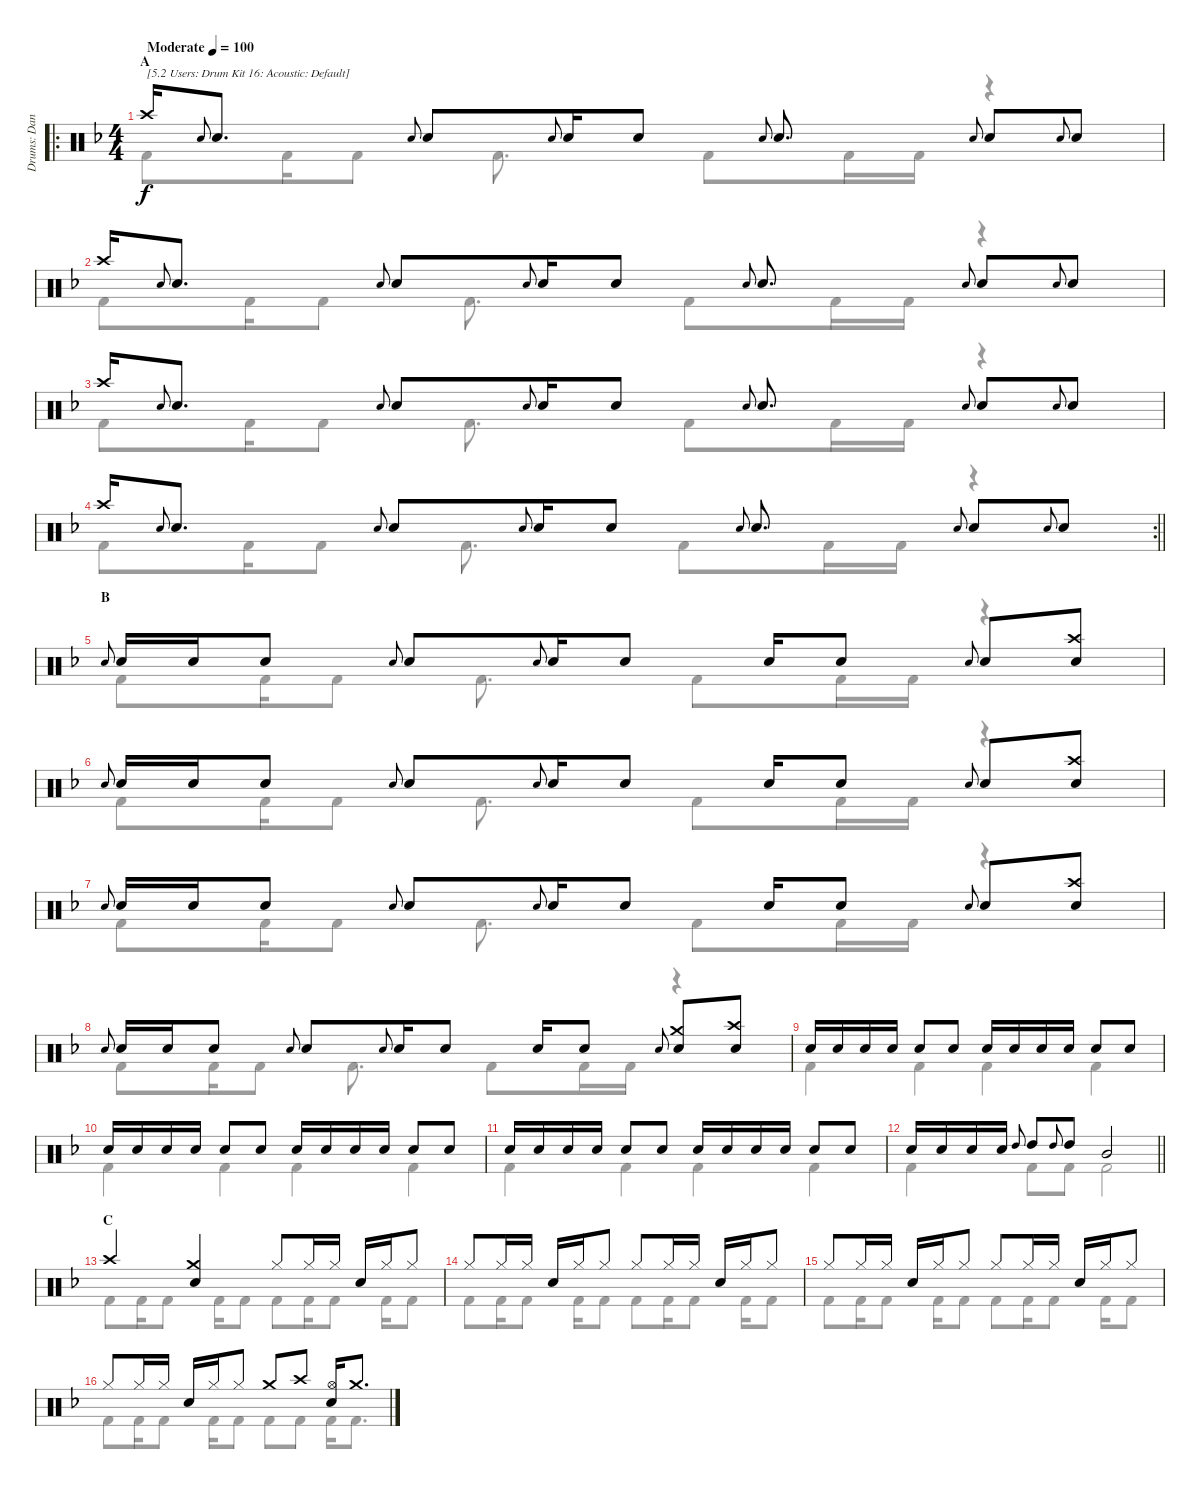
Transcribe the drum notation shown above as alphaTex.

\track ("Drums: Dana" "Drums: Dan") {instrument percussion}
\staff {score}
\articulation defaults
\voice
\ro
\ts (4 4)
\section ("" "A")
\tempo (100 "Moderate")
\clef neutral
\ks f "Crash high (hit)".16{txt "[5.2 Users: Drum Kit 16: Acoustic: Default]" dy f} "Electric Snare (hit)".8{gr onbeat} "Snare (hit) 2".8{d} "Electric Snare (hit)".8{gr onbeat} "Snare (hit) 2".8 "Electric Snare (hit)".8{gr onbeat} "Snare (hit) 2".16 "Snare (hit) 2".8 "Electric Snare (hit)".8{gr onbeat} "Snare (hit) 2".8{d} "Electric Snare (hit)".8{gr onbeat} "Snare (hit) 2".8 "Electric Snare (hit)".8{gr onbeat} "Snare (hit) 2".8
|
"Crash high (hit)".16 "Electric Snare (hit)".8{gr onbeat} "Snare (hit) 2".8{d} "Electric Snare (hit)".8{gr onbeat} "Snare (hit) 2".8 "Electric Snare (hit)".8{gr onbeat} "Snare (hit) 2".16 "Snare (hit) 2".8 "Electric Snare (hit)".8{gr onbeat} "Snare (hit) 2".8{d} "Electric Snare (hit)".8{gr onbeat} "Snare (hit) 2".8 "Electric Snare (hit)".8{gr onbeat} "Snare (hit) 2".8 |
"Crash high (hit)".16 "Electric Snare (hit)".8{gr onbeat} "Snare (hit) 2".8{d} "Electric Snare (hit)".8{gr onbeat} "Snare (hit) 2".8 "Electric Snare (hit)".8{gr onbeat} "Snare (hit) 2".16 "Snare (hit) 2".8 "Electric Snare (hit)".8{gr onbeat} "Snare (hit) 2".8{d} "Electric Snare (hit)".8{gr onbeat} "Snare (hit) 2".8 "Electric Snare (hit)".8{gr onbeat} "Snare (hit) 2".8 |
\rc 2
\barLineRight lightlight "Crash high (hit)".16 "Electric Snare (hit)".8{gr onbeat} "Snare (hit) 2".8{d} "Electric Snare (hit)".8{gr onbeat} "Snare (hit) 2".8 "Electric Snare (hit)".8{gr onbeat} "Snare (hit) 2".16 "Snare (hit) 2".8 "Electric Snare (hit)".8{gr onbeat} "Snare (hit) 2".8{d} "Electric Snare (hit)".8{gr onbeat} "Snare (hit) 2".8 "Electric Snare (hit)".8{gr onbeat} "Snare (hit) 2".8
|
\section ("" "B")
"Electric Snare (hit)".8{gr onbeat} "Snare (hit) 2".16 "Snare (hit) 2".16 "Snare (hit) 2".8 "Electric Snare (hit)".8{gr onbeat} "Snare (hit) 2".8 "Electric Snare (hit)".8{gr onbeat} "Snare (hit) 2".16 "Snare (hit) 2".8 "Snare (hit) 2".16 "Snare (hit) 2".8 "Electric Snare (hit)".8{gr onbeat} "Snare (hit) 2".8 ("Crash high (hit)" "Snare (hit) 2").8 |
"Electric Snare (hit)".8{gr onbeat} "Snare (hit) 2".16 "Snare (hit) 2".16 "Snare (hit) 2".8 "Electric Snare (hit)".8{gr onbeat} "Snare (hit) 2".8 "Electric Snare (hit)".8{gr onbeat} "Snare (hit) 2".16 "Snare (hit) 2".8 "Snare (hit) 2".16 "Snare (hit) 2".8 "Electric Snare (hit)".8{gr onbeat} "Snare (hit) 2".8 ("Crash high (hit)" "Snare (hit) 2").8 |
"Electric Snare (hit)".8{gr onbeat} "Snare (hit) 2".16 "Snare (hit) 2".16 "Snare (hit) 2".8 "Electric Snare (hit)".8{gr onbeat} "Snare (hit) 2".8 "Electric Snare (hit)".8{gr onbeat} "Snare (hit) 2".16 "Snare (hit) 2".8 "Snare (hit) 2".16 "Snare (hit) 2".8 "Electric Snare (hit)".8{gr onbeat} "Snare (hit) 2".8 ("Crash high (hit)" "Snare (hit) 2").8 |
"Electric Snare (hit)".8{gr onbeat} "Snare (hit) 2".16 "Snare (hit) 2".16 "Snare (hit) 2".8 "Electric Snare (hit)".8{gr onbeat} "Snare (hit) 2".8 "Electric Snare (hit)".8{gr onbeat} "Snare (hit) 2".16 "Snare (hit) 2".8 "Snare (hit) 2".16 "Snare (hit) 2".8 "Electric Snare (hit)".8{gr onbeat} ("Crash medium (hit)" "Snare (hit) 2").8 ("Crash high (hit)" "Snare (hit) 2").8 |
"Snare (hit) 2".16 "Snare (hit) 2".16 "Snare (hit) 2".16 "Snare (hit) 2".16 "Snare (hit) 2".8 "Snare (hit) 2".8 "Snare (hit) 2".16 "Snare (hit) 2".16 "Snare (hit) 2".16 "Snare (hit) 2".16 "Snare (hit) 2".8 "Snare (hit) 2".8 |
"Snare (hit) 2".16 "Snare (hit) 2".16 "Snare (hit) 2".16 "Snare (hit) 2".16 "Snare (hit) 2".8 "Snare (hit) 2".8 "Snare (hit) 2".16 "Snare (hit) 2".16 "Snare (hit) 2".16 "Snare (hit) 2".16 "Snare (hit) 2".8 "Snare (hit) 2".8 |
"Snare (hit) 2".16 "Snare (hit) 2".16 "Snare (hit) 2".16 "Snare (hit) 2".16 "Snare (hit) 2".8 "Snare (hit) 2".8 "Snare (hit) 2".16 "Snare (hit) 2".16 "Snare (hit) 2".16 "Snare (hit) 2".16 "Snare (hit) 2".8 "Snare (hit) 2".8 |
\barLineRight lightlight "Snare (hit) 2".16 "Snare (hit) 2".16 "Snare (hit) 2".16 "Snare (hit) 2".16 "High Tom (hit)".8{gr onbeat} "High Tom (hit)".8 "High Tom (hit)".8{gr onbeat} "High Tom (hit)".8 "Mid Tom (hit)".2
|
\section ("" "C")
"Crash high (hit)".4 ("Crash medium (hit)" "Snare (hit) 2").4 "Hi-Hat (closed)".8 "Hi-Hat (closed)".16 "Hi-Hat (closed)".16 "Snare (hit) 2".16 "Hi-Hat (closed)".16 "Hi-Hat (closed)".8 |
"Hi-Hat (closed)".8 "Hi-Hat (closed)".16 "Hi-Hat (closed)".16 "Snare (hit) 2".16 "Hi-Hat (closed)".16 "Hi-Hat (closed)".8 "Hi-Hat (closed)".8 "Hi-Hat (closed)".16 "Hi-Hat (closed)".16 "Snare (hit) 2".16 "Hi-Hat (closed)".16 "Hi-Hat (closed)".8 |
"Hi-Hat (closed)".8 "Hi-Hat (closed)".16 "Hi-Hat (closed)".16 "Snare (hit) 2".16 "Hi-Hat (closed)".16 "Hi-Hat (closed)".8 "Hi-Hat (closed)".8 "Hi-Hat (closed)".16 "Hi-Hat (closed)".16 "Snare (hit) 2".16 "Hi-Hat (closed)".16 "Hi-Hat (closed)".8 |
"Hi-Hat (closed)".8 "Hi-Hat (closed)".16 "Hi-Hat (closed)".16 "Snare (hit) 2".16 "Hi-Hat (closed)".16 "Hi-Hat (closed)".8 "Crash medium (hit)".8 "Crash high (hit)".8 ("Hi-Hat (open)" "Snare (hit) 2").16 "Crash medium (hit)".8{d}
\voice
\clef neutral
\ottava regular
\simile none
\ks f "Kick (hit) 2".8{dy f} "Kick (hit) 2".16 "Kick (hit) 2".8 "Kick (hit) 2".8{d} "Kick (hit) 2".8 "Kick (hit) 2".16 "Kick (hit) 2".16
r.4 |
"Kick (hit) 2".8 "Kick (hit) 2".16 "Kick (hit) 2".8 "Kick (hit) 2".8{d} "Kick (hit) 2".8 "Kick (hit) 2".16 "Kick (hit) 2".16 r.4 |
"Kick (hit) 2".8 "Kick (hit) 2".16 "Kick (hit) 2".8 "Kick (hit) 2".8{d} "Kick (hit) 2".8 "Kick (hit) 2".16 "Kick (hit) 2".16 r.4 |
\barLineRight lightlight "Kick (hit) 2".8 "Kick (hit) 2".16 "Kick (hit) 2".8 "Kick (hit) 2".8{d} "Kick (hit) 2".8 "Kick (hit) 2".16 "Kick (hit) 2".16
r.4 |
"Kick (hit) 2".8 "Kick (hit) 2".16 "Kick (hit) 2".8 "Kick (hit) 2".8{d} "Kick (hit) 2".8 "Kick (hit) 2".16 "Kick (hit) 2".16 r.4 |
"Kick (hit) 2".8 "Kick (hit) 2".16 "Kick (hit) 2".8 "Kick (hit) 2".8{d} "Kick (hit) 2".8 "Kick (hit) 2".16 "Kick (hit) 2".16 r.4 |
"Kick (hit) 2".8 "Kick (hit) 2".16 "Kick (hit) 2".8 "Kick (hit) 2".8{d} "Kick (hit) 2".8 "Kick (hit) 2".16 "Kick (hit) 2".16 r.4 |
"Kick (hit) 2".8 "Kick (hit) 2".16 "Kick (hit) 2".8 "Kick (hit) 2".8{d} "Kick (hit) 2".8 "Kick (hit) 2".16 "Kick (hit) 2".16 r.4 |
"Kick (hit) 2".4 "Kick (hit) 2".4 "Kick (hit) 2".4 "Kick (hit) 2".4 |
"Kick (hit) 2".4 "Kick (hit) 2".4 "Kick (hit) 2".4 "Kick (hit) 2".4 |
"Kick (hit) 2".4 "Kick (hit) 2".4 "Kick (hit) 2".4 "Kick (hit) 2".4 |
\barLineRight lightlight "Kick (hit) 2".4 "Kick (hit) 2".8 "Kick (hit) 2".8 "Kick (hit) 2".2
|
"Kick (hit) 2".8 "Kick (hit) 2".16 "Kick (hit) 2".8 "Kick (hit) 2".16 "Kick (hit) 2".8 "Kick (hit) 2".8 "Kick (hit) 2".16 "Kick (hit) 2".8 "Kick (hit) 2".16 "Kick (hit) 2".8 |
"Kick (hit) 2".8 "Kick (hit) 2".16 "Kick (hit) 2".8 "Kick (hit) 2".16 "Kick (hit) 2".8 "Kick (hit) 2".8 "Kick (hit) 2".16 "Kick (hit) 2".8 "Kick (hit) 2".16 "Kick (hit) 2".8 |
"Kick (hit) 2".8 "Kick (hit) 2".16 "Kick (hit) 2".8 "Kick (hit) 2".16 "Kick (hit) 2".8 "Kick (hit) 2".8 "Kick (hit) 2".16 "Kick (hit) 2".8 "Kick (hit) 2".16 "Kick (hit) 2".8 |
"Kick (hit) 2".8 "Kick (hit) 2".16 "Kick (hit) 2".8 "Kick (hit) 2".16 "Kick (hit) 2".8 "Kick (hit) 2".8 "Kick (hit) 2".8 "Kick (hit) 2".16 "Kick (hit) 2".8{d}
